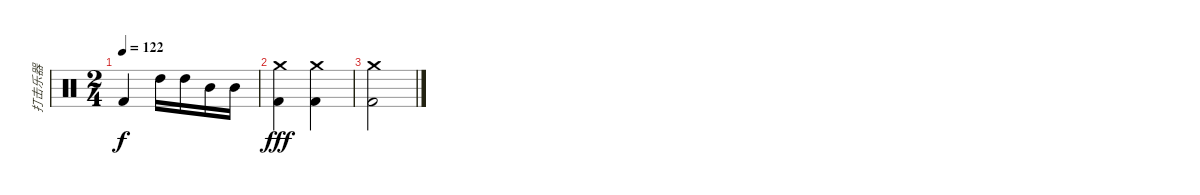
\track ("打击乐器" "打击乐器") {instrument percussion}
\staff {score}
\articulation defaults
\ts (2 4)
\tempo 122
\clef neutral
\ks c "Kick (hit) 2".4{dy f} "High Tom (hit)".16 "High Tom (hit)".16 "Mid Tom (hit)".16 "Mid Tom (hit)".16
|
("Crash medium (hit)" "Kick (hit) 2").4{dy fff} ("Crash medium (hit)" "Kick (hit) 2").4 |
("Crash medium (hit)" "Kick (hit) 2").2
